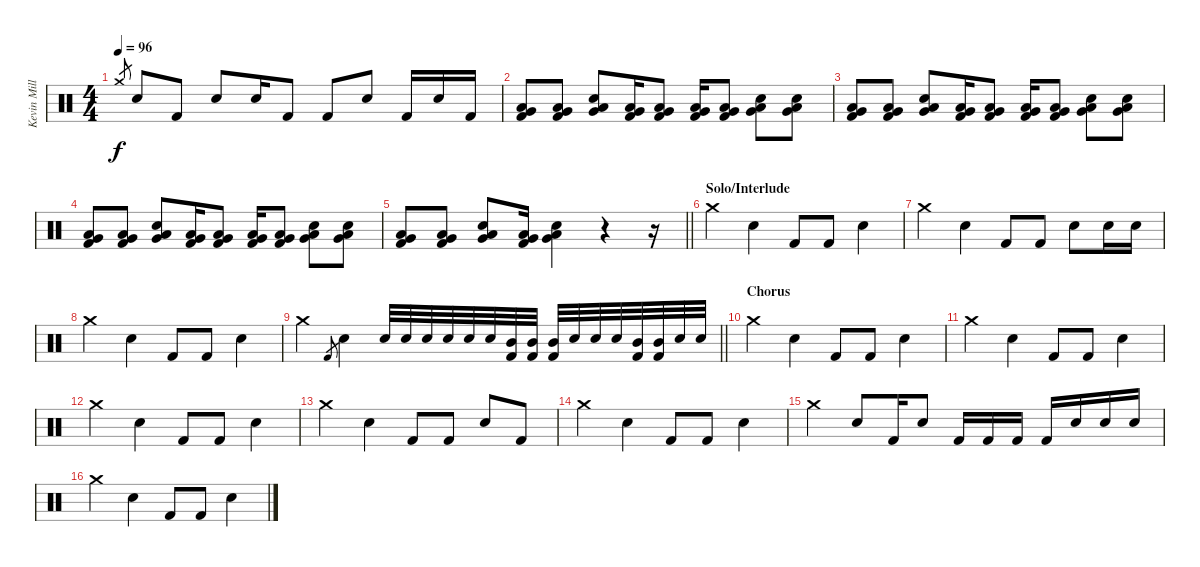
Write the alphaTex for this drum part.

\track ("Kevin Miller (Drums)" "Kevin Mill") {instrument percussion}
\staff {score}
\articulation defaults
\ts (4 4)
\tempo 96
\clef neutral
\ks c "Crash medium (hit)".8{gr dy f} "Electric Snare (hit)".8 "Kick (hit) 2".8 "Electric Snare (hit)".8 "Electric Snare (hit)".16 "Kick (hit) 2".8 "Kick (hit) 2".8 "Electric Snare (hit)".8 "Kick (hit) 2".16 "Electric Snare (hit)".16 "Kick (hit) 2".16
|
("Kick (hit) 2" "Low Floor Tom (hit)" "Very Low Tom (hit)").8 ("Kick (hit) 2" "Low Floor Tom (hit)" "Very Low Tom (hit)").8 ("Electric Snare (hit)" "Low Tom (hit)" "Very Low Tom (hit)").8 ("Kick (hit) 2" "Low Floor Tom (hit)" "Very Low Tom (hit)").16 ("Kick (hit) 2" "Low Floor Tom (hit)" "Very Low Tom (hit)").8 ("Kick (hit) 2" "Low Floor Tom (hit)" "Very Low Tom (hit)").16 ("Kick (hit) 2" "Low Floor Tom (hit)" "Very Low Tom (hit)").8 ("Electric Snare (hit)" "Low Tom (hit)" "Very Low Tom (hit)").8 ("Electric Snare (hit)" "Low Tom (hit)" "Very Low Tom (hit)").8 |
("Kick (hit) 2" "Low Floor Tom (hit)" "Very Low Tom (hit)").8 ("Kick (hit) 2" "Low Floor Tom (hit)" "Very Low Tom (hit)").8 ("Electric Snare (hit)" "Low Tom (hit)" "Very Low Tom (hit)").8 ("Kick (hit) 2" "Low Floor Tom (hit)" "Very Low Tom (hit)").16 ("Kick (hit) 2" "Low Floor Tom (hit)" "Very Low Tom (hit)").8 ("Kick (hit) 2" "Low Floor Tom (hit)" "Very Low Tom (hit)").16 ("Kick (hit) 2" "Low Floor Tom (hit)" "Very Low Tom (hit)").8 ("Electric Snare (hit)" "Low Tom (hit)" "Very Low Tom (hit)").8 ("Electric Snare (hit)" "Low Tom (hit)" "Very Low Tom (hit)").8 |
("Kick (hit) 2" "Low Floor Tom (hit)" "Very Low Tom (hit)").8 ("Kick (hit) 2" "Low Floor Tom (hit)" "Very Low Tom (hit)").8 ("Electric Snare (hit)" "Low Tom (hit)" "Very Low Tom (hit)").8 ("Kick (hit) 2" "Low Floor Tom (hit)" "Very Low Tom (hit)").16 ("Kick (hit) 2" "Low Floor Tom (hit)" "Very Low Tom (hit)").8 ("Kick (hit) 2" "Low Floor Tom (hit)" "Very Low Tom (hit)").16 ("Kick (hit) 2" "Low Floor Tom (hit)" "Very Low Tom (hit)").8 ("Electric Snare (hit)" "Low Tom (hit)" "Very Low Tom (hit)").8 ("Electric Snare (hit)" "Low Tom (hit)" "Very Low Tom (hit)").8 |
\barLineRight lightlight
("Kick (hit) 2" "Low Floor Tom (hit)" "Very Low Tom (hit)").8 ("Kick (hit) 2" "Low Floor Tom (hit)" "Very Low Tom (hit)").8 ("Electric Snare (hit)" "Low Tom (hit)" "Very Low Tom (hit)").8 ("Kick (hit) 2" "Low Floor Tom (hit)" "Very Low Tom (hit)").16 ("Electric Snare (hit)" "Low Tom (hit)" "Very Low Tom (hit)").4 r.4 r.16 |
\section ("" "Solo/Interlude")
"Crash medium (hit)".4 "Electric Snare (hit)".4 "Kick (hit) 2".8 "Kick (hit) 2".8 "Electric Snare (hit)".4 |
"Crash medium (hit)".4 "Electric Snare (hit)".4 "Kick (hit) 2".8 "Kick (hit) 2".8 "Electric Snare (hit)".8 "Electric Snare (hit)".16 "Electric Snare (hit)".16 |
"Crash medium (hit)".4 "Electric Snare (hit)".4 "Kick (hit) 2".8 "Kick (hit) 2".8 "Electric Snare (hit)".4 |
\barLineRight lightlight "Crash medium (hit)".4 "Kick (hit) 2".8{gr} "Electric Snare (hit)".4 "Electric Snare (hit)".32 "Electric Snare (hit)".32 "Electric Snare (hit)".32 "Electric Snare (hit)".32 "Electric Snare (hit)".32 "Electric Snare (hit)".32
("Kick (hit) 2" "Mid Tom (hit)").32 ("Kick (hit) 2" "Mid Tom (hit)").32 ("Kick (hit) 2" "Mid Tom (hit)").32 "Electric Snare (hit)".32 "Electric Snare (hit)".32 "Electric Snare (hit)".32 ("Kick (hit) 2" "Mid Tom (hit)").32 ("Kick (hit) 2" "Mid Tom (hit)").32 "Electric Snare (hit)".32 "Electric Snare (hit)".32 |
\section ("" "Chorus")
"Crash medium (hit)".4 "Electric Snare (hit)".4 "Kick (hit) 2".8 "Kick (hit) 2".8 "Electric Snare (hit)".4 |
"Crash medium (hit)".4 "Electric Snare (hit)".4 "Kick (hit) 2".8 "Kick (hit) 2".8 "Electric Snare (hit)".4 |
"Crash medium (hit)".4 "Electric Snare (hit)".4 "Kick (hit) 2".8 "Kick (hit) 2".8 "Electric Snare (hit)".4 |
"Crash medium (hit)".4 "Electric Snare (hit)".4 "Kick (hit) 2".8 "Kick (hit) 2".8 "Electric Snare (hit)".8 "Kick (hit) 2".8 |
"Crash medium (hit)".4 "Electric Snare (hit)".4 "Kick (hit) 2".8 "Kick (hit) 2".8 "Electric Snare (hit)".4 |
"Crash medium (hit)".4 "Electric Snare (hit)".8 "Kick (hit) 2".16 "Electric Snare (hit)".8 "Kick (hit) 2".16 "Kick (hit) 2".16 "Kick (hit) 2".16 "Kick (hit) 2".16 "Electric Snare (hit)".16 "Electric Snare (hit)".16 "Electric Snare (hit)".16 |
"Crash medium (hit)".4 "Electric Snare (hit)".4 "Kick (hit) 2".8 "Kick (hit) 2".8 "Electric Snare (hit)".4
